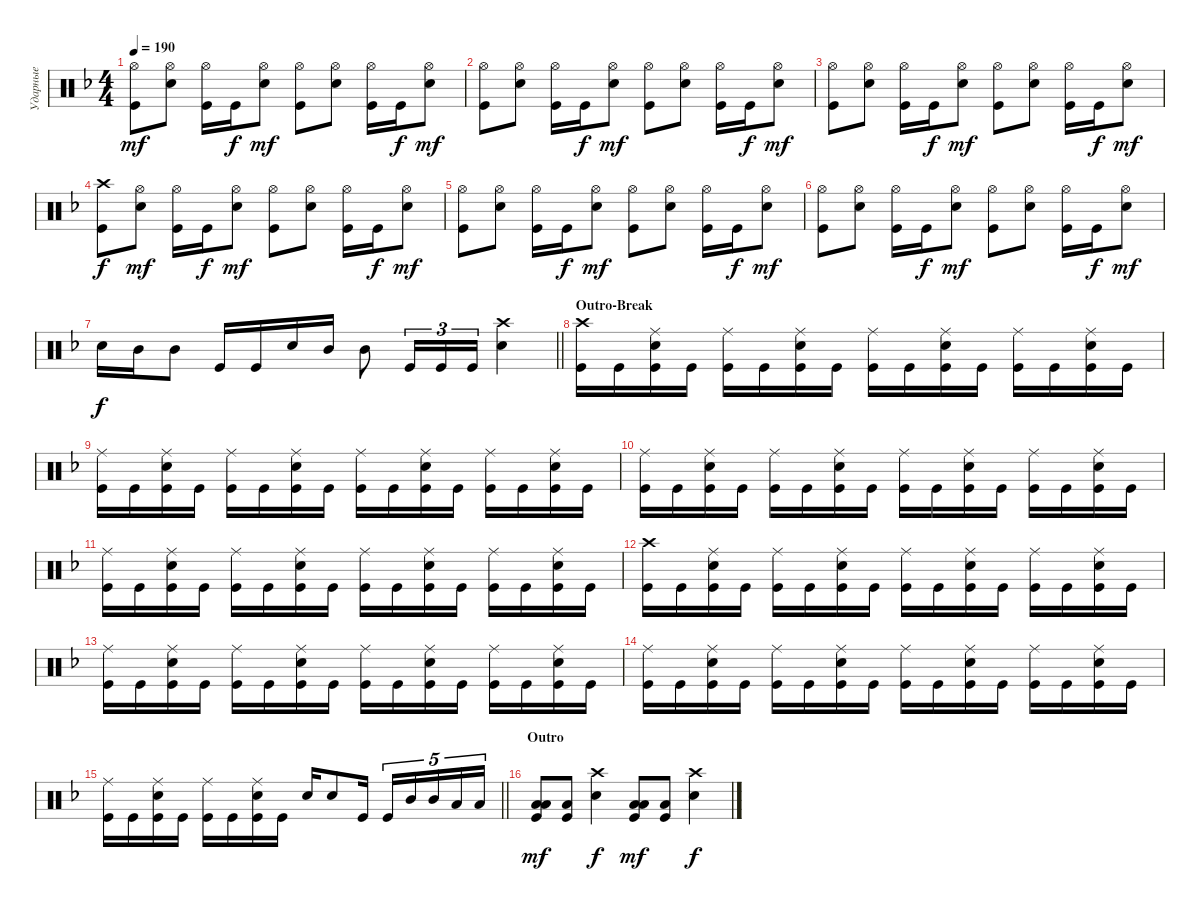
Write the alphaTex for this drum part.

\track ("Ударные" "Ударные") {instrument percussion}
\staff {score}
\articulation defaults
\ts (4 4)
\tempo 190
\clef neutral
\ks dminor
("Kick (hit)" "Hi-Hat (open)").8{dy mf} ("Snare (hit) 2" "Hi-Hat (open)").8 ("Kick (hit)" "Hi-Hat (open)").16 "Kick (hit)".16{dy f} ("Snare (hit) 2" "Hi-Hat (open)").8{dy mf} ("Kick (hit)" "Hi-Hat (open)").8 ("Snare (hit) 2" "Hi-Hat (open)").8 ("Kick (hit)" "Hi-Hat (open)").16 "Kick (hit)".16{dy f} ("Snare (hit) 2" "Hi-Hat (open)").8{dy mf} |
("Kick (hit)" "Hi-Hat (open)").8 ("Snare (hit) 2" "Hi-Hat (open)").8 ("Kick (hit)" "Hi-Hat (open)").16 "Kick (hit)".16{dy f} ("Snare (hit) 2" "Hi-Hat (open)").8{dy mf} ("Kick (hit)" "Hi-Hat (open)").8 ("Snare (hit) 2" "Hi-Hat (open)").8 ("Kick (hit)" "Hi-Hat (open)").16 "Kick (hit)".16{dy f} ("Snare (hit) 2" "Hi-Hat (open)").8{dy mf} |
("Kick (hit)" "Hi-Hat (open)").8 ("Snare (hit) 2" "Hi-Hat (open)").8 ("Kick (hit)" "Hi-Hat (open)").16 "Kick (hit)".16{dy f} ("Snare (hit) 2" "Hi-Hat (open)").8{dy mf} ("Kick (hit)" "Hi-Hat (open)").8 ("Snare (hit) 2" "Hi-Hat (open)").8 ("Kick (hit)" "Hi-Hat (open)").16 "Kick (hit)".16{dy f} ("Snare (hit) 2" "Hi-Hat (open)").8{dy mf} |
("Kick (hit)" "Crash high (hit)").8{dy f} ("Snare (hit) 2" "Hi-Hat (open)").8{dy mf} ("Kick (hit)" "Hi-Hat (open)").16 "Kick (hit)".16{dy f} ("Snare (hit) 2" "Hi-Hat (open)").8{dy mf} ("Kick (hit)" "Hi-Hat (open)").8 ("Snare (hit) 2" "Hi-Hat (open)").8 ("Kick (hit)" "Hi-Hat (open)").16 "Kick (hit)".16{dy f} ("Snare (hit) 2" "Hi-Hat (open)").8{dy mf} |
("Kick (hit)" "Hi-Hat (open)").8 ("Snare (hit) 2" "Hi-Hat (open)").8 ("Kick (hit)" "Hi-Hat (open)").16 "Kick (hit)".16{dy f} ("Snare (hit) 2" "Hi-Hat (open)").8{dy mf} ("Kick (hit)" "Hi-Hat (open)").8 ("Snare (hit) 2" "Hi-Hat (open)").8 ("Kick (hit)" "Hi-Hat (open)").16 "Kick (hit)".16{dy f} ("Snare (hit) 2" "Hi-Hat (open)").8{dy mf} |
("Kick (hit)" "Hi-Hat (open)").8 ("Snare (hit) 2" "Hi-Hat (open)").8 ("Kick (hit)" "Hi-Hat (open)").16 "Kick (hit)".16{dy f} ("Snare (hit) 2" "Hi-Hat (open)").8{dy mf} ("Kick (hit)" "Hi-Hat (open)").8 ("Snare (hit) 2" "Hi-Hat (open)").8 ("Kick (hit)" "Hi-Hat (open)").16 "Kick (hit)".16{dy f} ("Snare (hit) 2" "Hi-Hat (open)").8{dy mf} |
\barLineRight lightlight "Snare (hit) 2".16{dy f} "Mid Tom (hit)".16 "Mid Tom (hit)".8 "Kick (hit)".16 "Kick (hit)".16 "Snare (hit) 2".16 "Mid Tom (hit)".16 "Mid Tom (hit)".8 "Kick (hit)".16{tu (3 2)} "Kick (hit)".16{tu (3 2)} "Kick (hit)".16{tu (3 2)}
("Snare (hit) 2" "Crash high (hit)").4 |
\section ("" "Outro-Break")
("Kick (hit)" "Crash high (hit)").16 "Kick (hit)".16 ("Kick (hit)" "Snare (hit) 2" "Ride (middle)").16 "Kick (hit)".16 ("Kick (hit)" "Ride (middle)").16 "Kick (hit)".16 ("Kick (hit)" "Snare (hit) 2" "Ride (middle)").16 "Kick (hit)".16 ("Kick (hit)" "Ride (middle)").16 "Kick (hit)".16 ("Kick (hit)" "Snare (hit) 2" "Ride (middle)").16 "Kick (hit)".16 ("Kick (hit)" "Ride (middle)").16 "Kick (hit)".16 ("Kick (hit)" "Snare (hit) 2" "Ride (middle)").16 "Kick (hit)".16 |
("Kick (hit)" "Ride (middle)").16 "Kick (hit)".16 ("Kick (hit)" "Snare (hit) 2" "Ride (middle)").16 "Kick (hit)".16 ("Kick (hit)" "Ride (middle)").16 "Kick (hit)".16 ("Kick (hit)" "Snare (hit) 2" "Ride (middle)").16 "Kick (hit)".16 ("Kick (hit)" "Ride (middle)").16 "Kick (hit)".16 ("Kick (hit)" "Snare (hit) 2" "Ride (middle)").16 "Kick (hit)".16 ("Kick (hit)" "Ride (middle)").16 "Kick (hit)".16 ("Kick (hit)" "Snare (hit) 2" "Ride (middle)").16 "Kick (hit)".16 |
("Kick (hit)" "Ride (middle)").16 "Kick (hit)".16 ("Kick (hit)" "Snare (hit) 2" "Ride (middle)").16 "Kick (hit)".16 ("Kick (hit)" "Ride (middle)").16 "Kick (hit)".16 ("Kick (hit)" "Snare (hit) 2" "Ride (middle)").16 "Kick (hit)".16 ("Kick (hit)" "Ride (middle)").16 "Kick (hit)".16 ("Kick (hit)" "Snare (hit) 2" "Ride (middle)").16 "Kick (hit)".16 ("Kick (hit)" "Ride (middle)").16 "Kick (hit)".16 ("Kick (hit)" "Snare (hit) 2" "Ride (middle)").16 "Kick (hit)".16 |
("Kick (hit)" "Ride (middle)").16 "Kick (hit)".16 ("Kick (hit)" "Snare (hit) 2" "Ride (middle)").16 "Kick (hit)".16 ("Kick (hit)" "Ride (middle)").16 "Kick (hit)".16 ("Kick (hit)" "Snare (hit) 2" "Ride (middle)").16 "Kick (hit)".16 ("Kick (hit)" "Ride (middle)").16 "Kick (hit)".16 ("Kick (hit)" "Snare (hit) 2" "Ride (middle)").16 "Kick (hit)".16 ("Kick (hit)" "Ride (middle)").16 "Kick (hit)".16 ("Kick (hit)" "Snare (hit) 2" "Ride (middle)").16 "Kick (hit)".16 |
("Kick (hit)" "Crash high (hit)").16 "Kick (hit)".16 ("Kick (hit)" "Snare (hit) 2" "Ride (middle)").16 "Kick (hit)".16 ("Kick (hit)" "Ride (middle)").16 "Kick (hit)".16 ("Kick (hit)" "Snare (hit) 2" "Ride (middle)").16 "Kick (hit)".16 ("Kick (hit)" "Ride (middle)").16 "Kick (hit)".16 ("Kick (hit)" "Snare (hit) 2" "Ride (middle)").16 "Kick (hit)".16 ("Kick (hit)" "Ride (middle)").16 "Kick (hit)".16 ("Kick (hit)" "Snare (hit) 2" "Ride (middle)").16 "Kick (hit)".16 |
("Kick (hit)" "Ride (middle)").16 "Kick (hit)".16 ("Kick (hit)" "Snare (hit) 2" "Ride (middle)").16 "Kick (hit)".16 ("Kick (hit)" "Ride (middle)").16 "Kick (hit)".16 ("Kick (hit)" "Snare (hit) 2" "Ride (middle)").16 "Kick (hit)".16 ("Kick (hit)" "Ride (middle)").16 "Kick (hit)".16 ("Kick (hit)" "Snare (hit) 2" "Ride (middle)").16 "Kick (hit)".16 ("Kick (hit)" "Ride (middle)").16 "Kick (hit)".16 ("Kick (hit)" "Snare (hit) 2" "Ride (middle)").16 "Kick (hit)".16 |
("Kick (hit)" "Ride (middle)").16 "Kick (hit)".16 ("Kick (hit)" "Snare (hit) 2" "Ride (middle)").16 "Kick (hit)".16 ("Kick (hit)" "Ride (middle)").16 "Kick (hit)".16 ("Kick (hit)" "Snare (hit) 2" "Ride (middle)").16 "Kick (hit)".16 ("Kick (hit)" "Ride (middle)").16 "Kick (hit)".16 ("Kick (hit)" "Snare (hit) 2" "Ride (middle)").16 "Kick (hit)".16 ("Kick (hit)" "Ride (middle)").16 "Kick (hit)".16 ("Kick (hit)" "Snare (hit) 2" "Ride (middle)").16 "Kick (hit)".16 |
\barLineRight lightlight
("Kick (hit)" "Ride (middle)").16 "Kick (hit)".16 ("Kick (hit)" "Snare (hit) 2" "Ride (middle)").16 "Kick (hit)".16 ("Kick (hit)" "Ride (middle)").16 "Kick (hit)".16 ("Kick (hit)" "Snare (hit) 2" "Ride (middle)").16 "Kick (hit)".16 "Snare (hit) 2".16 "Snare (hit) 2".8 "Kick (hit)".16 "Kick (hit)".16{tu (5 4)} "Mid Tom (hit)".16{tu (5 4)} "Mid Tom (hit)".16{tu (5 4)} "Low Tom (hit)".16{tu (5 4)} "Low Tom (hit)".16{tu (5 4)} |
\section ("" "Outro")
("Low Tom (hit)" "Kick (hit)" "Low Tom (hit)").8{bd 60 dy mf} ("Kick (hit)" "Low Tom (hit)").8 ("Snare (hit) 2" "Crash high (hit)").4{dy f} ("Low Tom (hit)" "Low Tom (hit)" "Kick (hit)").8{bd 60 dy mf} ("Kick (hit)" "Low Tom (hit)").8 ("Snare (hit) 2" "Crash high (hit)").4{dy f}
